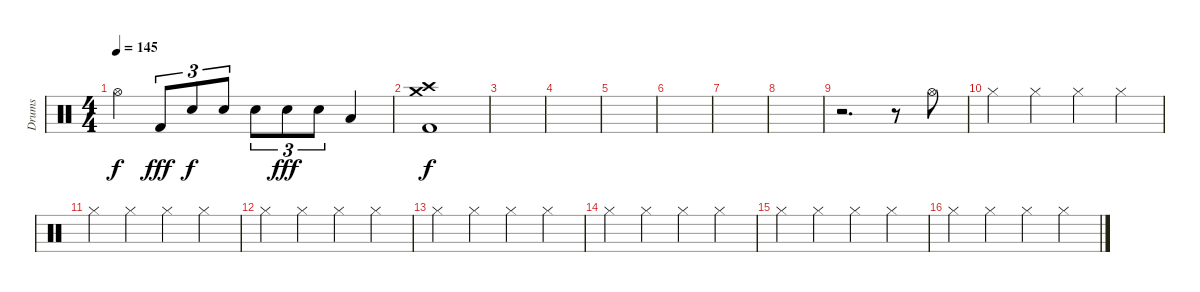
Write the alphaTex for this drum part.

\track ("Drums" "Drums") {instrument percussion}
\staff {score}
\articulation defaults
\ts (4 4)
\tempo 145
\clef neutral
\ks c "Hi-Hat (open)".4{dy f} "Kick (hit) 2".8{tu (3 2) dy fff} "Electric Snare (hit)".8{tu (3 2) dy f} "Electric Snare (hit)".8{tu (3 2)} "Electric Snare (hit)".8{tu (3 2)} "Electric Snare (hit)".8{tu (3 2) dy fff} "Electric Snare (hit)".8{tu (3 2)} "Low Floor Tom (hit)".4
|
("Crash medium (hit)" "Crash high (hit)" "Kick (hit) 2").1{dy f} |
|
|
|
|
|
|
r.2{d} r.8 "Hi-Hat (open)".8 |
"Hi-Hat (closed)".4 "Hi-Hat (closed)".4 "Hi-Hat (closed)".4 "Hi-Hat (closed)".4 |
"Hi-Hat (closed)".4 "Hi-Hat (closed)".4 "Hi-Hat (closed)".4 "Hi-Hat (closed)".4 |
"Hi-Hat (closed)".4 "Hi-Hat (closed)".4 "Hi-Hat (closed)".4 "Hi-Hat (closed)".4 |
"Hi-Hat (closed)".4 "Hi-Hat (closed)".4 "Hi-Hat (closed)".4 "Hi-Hat (closed)".4 |
"Hi-Hat (closed)".4 "Hi-Hat (closed)".4 "Hi-Hat (closed)".4 "Hi-Hat (closed)".4 |
"Hi-Hat (closed)".4 "Hi-Hat (closed)".4 "Hi-Hat (closed)".4 "Hi-Hat (closed)".4 |
"Hi-Hat (closed)".4 "Hi-Hat (closed)".4 "Hi-Hat (closed)".4 "Hi-Hat (closed)".4
